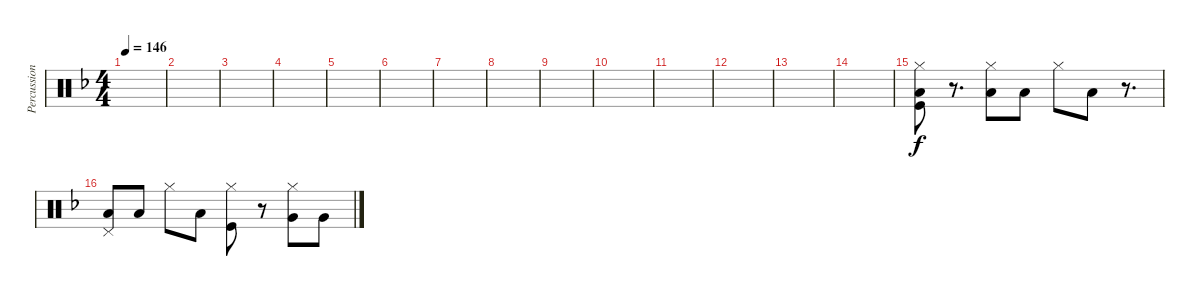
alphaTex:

\track ("Percussioni" "Percussion") {instrument percussion}
\staff {score}
\articulation defaults
\ts (4 4)
\tempo 146
\clef neutral
\ks dminor
|
|
|
|
|
|
|
|
|
|
|
|
|
|
("Kick (hit)" "Low Floor Tom (hit)" "Hi-Hat (closed)").8 r.8{d} ("Low Floor Tom (hit)" "Hi-Hat (closed)").8 "Low Floor Tom (hit)".8 "Hi-Hat (closed)".8 "Low Floor Tom (hit)".8 r.8{d} |
("Pedal Hi-Hat (hit)" "Low Floor Tom (hit)").8 "Low Floor Tom (hit)".8 "Hi-Hat (closed)".8 "Low Floor Tom (hit)".8 ("Kick (hit)" "Hi-Hat (closed)").8 r.8 ("Very Low Tom (hit)" "Hi-Hat (closed)").8 "Very Low Tom (hit)".8
